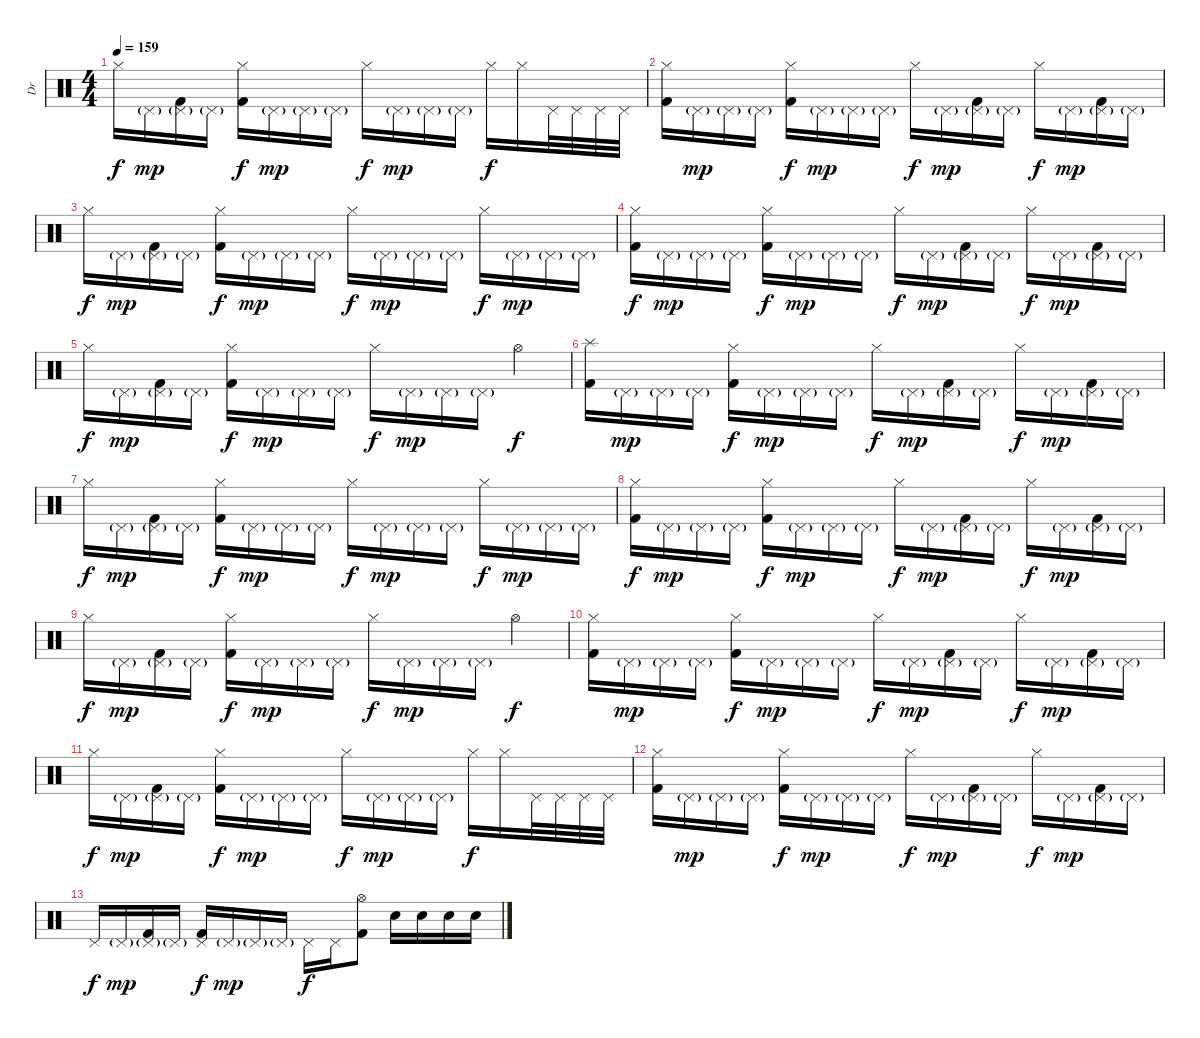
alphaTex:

\track ("Dr" "Dr") {instrument percussion}
\staff {score}
\articulation defaults
\ts (4 4)
\tempo 159
\clef neutral
\ks c "Hi-Hat (closed)".16{dy f} "Pedal Hi-Hat (hit)"{g}.16{dy mp}
("Pedal Hi-Hat (hit)"{g} "Kick (hit) 2").16 "Pedal Hi-Hat (hit)"{g}.16 ("Hi-Hat (closed)" "Kick (hit) 2").16{dy f} "Pedal Hi-Hat (hit)"{g}.16{dy mp} "Pedal Hi-Hat (hit)"{g}.16 "Pedal Hi-Hat (hit)"{g}.16 "Hi-Hat (closed)".16{dy f} "Pedal Hi-Hat (hit)"{g}.16{dy mp} "Pedal Hi-Hat (hit)"{g}.16 "Pedal Hi-Hat (hit)"{g}.16 "Hi-Hat (closed)".16{dy f} "Hi-Hat (closed)".16 "Pedal Hi-Hat (hit)".32 "Pedal Hi-Hat (hit)".32 "Pedal Hi-Hat (hit)".32 "Pedal Hi-Hat (hit)".32 |
("Hi-Hat (closed)" "Kick (hit) 2").16 "Pedal Hi-Hat (hit)"{g}.16{dy mp} "Pedal Hi-Hat (hit)"{g}.16 "Pedal Hi-Hat (hit)"{g}.16 ("Hi-Hat (closed)" "Kick (hit) 2").16{dy f} "Pedal Hi-Hat (hit)"{g}.16{dy mp} "Pedal Hi-Hat (hit)"{g}.16 "Pedal Hi-Hat (hit)"{g}.16 "Hi-Hat (closed)".16{dy f} "Pedal Hi-Hat (hit)"{g}.16{dy mp} ("Pedal Hi-Hat (hit)"{g} "Kick (hit) 2").16 "Pedal Hi-Hat (hit)"{g}.16 "Hi-Hat (closed)".16{dy f} "Pedal Hi-Hat (hit)"{g}.16{dy mp} ("Pedal Hi-Hat (hit)"{g} "Kick (hit) 2").16 "Pedal Hi-Hat (hit)"{g}.16 |
"Hi-Hat (closed)".16{dy f} "Pedal Hi-Hat (hit)"{g}.16{dy mp} ("Pedal Hi-Hat (hit)"{g} "Kick (hit) 2").16 "Pedal Hi-Hat (hit)"{g}.16 ("Hi-Hat (closed)" "Kick (hit) 2").16{dy f} "Pedal Hi-Hat (hit)"{g}.16{dy mp} "Pedal Hi-Hat (hit)"{g}.16 "Pedal Hi-Hat (hit)"{g}.16 "Hi-Hat (closed)".16{dy f} "Pedal Hi-Hat (hit)"{g}.16{dy mp} "Pedal Hi-Hat (hit)"{g}.16 "Pedal Hi-Hat (hit)"{g}.16 "Hi-Hat (closed)".16{dy f} "Pedal Hi-Hat (hit)"{g}.16{dy mp} "Pedal Hi-Hat (hit)"{g}.16 "Pedal Hi-Hat (hit)"{g}.16 |
("Hi-Hat (closed)" "Kick (hit) 2").16{dy f} "Pedal Hi-Hat (hit)"{g}.16{dy mp} "Pedal Hi-Hat (hit)"{g}.16 "Pedal Hi-Hat (hit)"{g}.16 ("Hi-Hat (closed)" "Kick (hit) 2").16{dy f} "Pedal Hi-Hat (hit)"{g}.16{dy mp} "Pedal Hi-Hat (hit)"{g}.16 "Pedal Hi-Hat (hit)"{g}.16 "Hi-Hat (closed)".16{dy f} "Pedal Hi-Hat (hit)"{g}.16{dy mp} ("Pedal Hi-Hat (hit)"{g} "Kick (hit) 2").16 "Pedal Hi-Hat (hit)"{g}.16 "Hi-Hat (closed)".16{dy f} "Pedal Hi-Hat (hit)"{g}.16{dy mp} ("Pedal Hi-Hat (hit)"{g} "Kick (hit) 2").16 "Pedal Hi-Hat (hit)"{g}.16 |
"Hi-Hat (closed)".16{dy f} "Pedal Hi-Hat (hit)"{g}.16{dy mp} ("Pedal Hi-Hat (hit)"{g} "Kick (hit) 2").16 "Pedal Hi-Hat (hit)"{g}.16 ("Hi-Hat (closed)" "Kick (hit) 2").16{dy f} "Pedal Hi-Hat (hit)"{g}.16{dy mp} "Pedal Hi-Hat (hit)"{g}.16 "Pedal Hi-Hat (hit)"{g}.16 "Hi-Hat (closed)".16{dy f} "Pedal Hi-Hat (hit)"{g}.16{dy mp} "Pedal Hi-Hat (hit)"{g}.16 "Pedal Hi-Hat (hit)"{g}.16 "Hi-Hat (open)".4{dy f} |
("Splash (hit)" "Kick (hit) 2").16 "Pedal Hi-Hat (hit)"{g}.16{dy mp} "Pedal Hi-Hat (hit)"{g}.16 "Pedal Hi-Hat (hit)"{g}.16 ("Hi-Hat (closed)" "Kick (hit) 2").16{dy f} "Pedal Hi-Hat (hit)"{g}.16{dy mp} "Pedal Hi-Hat (hit)"{g}.16 "Pedal Hi-Hat (hit)"{g}.16 "Hi-Hat (closed)".16{dy f} "Pedal Hi-Hat (hit)"{g}.16{dy mp} ("Pedal Hi-Hat (hit)"{g} "Kick (hit) 2").16 "Pedal Hi-Hat (hit)"{g}.16 "Hi-Hat (closed)".16{dy f} "Pedal Hi-Hat (hit)"{g}.16{dy mp} ("Pedal Hi-Hat (hit)"{g} "Kick (hit) 2").16 "Pedal Hi-Hat (hit)"{g}.16 |
"Hi-Hat (closed)".16{dy f} "Pedal Hi-Hat (hit)"{g}.16{dy mp} ("Pedal Hi-Hat (hit)"{g} "Kick (hit) 2").16 "Pedal Hi-Hat (hit)"{g}.16 ("Hi-Hat (closed)" "Kick (hit) 2").16{dy f} "Pedal Hi-Hat (hit)"{g}.16{dy mp} "Pedal Hi-Hat (hit)"{g}.16 "Pedal Hi-Hat (hit)"{g}.16 "Hi-Hat (closed)".16{dy f} "Pedal Hi-Hat (hit)"{g}.16{dy mp} "Pedal Hi-Hat (hit)"{g}.16 "Pedal Hi-Hat (hit)"{g}.16 "Hi-Hat (closed)".16{dy f} "Pedal Hi-Hat (hit)"{g}.16{dy mp} "Pedal Hi-Hat (hit)"{g}.16 "Pedal Hi-Hat (hit)"{g}.16 |
("Hi-Hat (closed)" "Kick (hit) 2").16{dy f} "Pedal Hi-Hat (hit)"{g}.16{dy mp} "Pedal Hi-Hat (hit)"{g}.16 "Pedal Hi-Hat (hit)"{g}.16 ("Hi-Hat (closed)" "Kick (hit) 2").16{dy f} "Pedal Hi-Hat (hit)"{g}.16{dy mp} "Pedal Hi-Hat (hit)"{g}.16 "Pedal Hi-Hat (hit)"{g}.16 "Hi-Hat (closed)".16{dy f} "Pedal Hi-Hat (hit)"{g}.16{dy mp} ("Pedal Hi-Hat (hit)"{g} "Kick (hit) 2").16 "Pedal Hi-Hat (hit)"{g}.16 "Hi-Hat (closed)".16{dy f} "Pedal Hi-Hat (hit)"{g}.16{dy mp} ("Pedal Hi-Hat (hit)"{g} "Kick (hit) 2").16 "Pedal Hi-Hat (hit)"{g}.16 |
"Hi-Hat (closed)".16{dy f} "Pedal Hi-Hat (hit)"{g}.16{dy mp} ("Pedal Hi-Hat (hit)"{g} "Kick (hit) 2").16 "Pedal Hi-Hat (hit)"{g}.16 ("Hi-Hat (closed)" "Kick (hit) 2").16{dy f} "Pedal Hi-Hat (hit)"{g}.16{dy mp} "Pedal Hi-Hat (hit)"{g}.16 "Pedal Hi-Hat (hit)"{g}.16 "Hi-Hat (closed)".16{dy f} "Pedal Hi-Hat (hit)"{g}.16{dy mp} "Pedal Hi-Hat (hit)"{g}.16 "Pedal Hi-Hat (hit)"{g}.16 "Hi-Hat (open)".4{dy f} |
("Hi-Hat (closed)" "Kick (hit) 2").16 "Pedal Hi-Hat (hit)"{g}.16{dy mp} "Pedal Hi-Hat (hit)"{g}.16 "Pedal Hi-Hat (hit)"{g}.16 ("Hi-Hat (closed)" "Kick (hit) 2").16{dy f} "Pedal Hi-Hat (hit)"{g}.16{dy mp} "Pedal Hi-Hat (hit)"{g}.16 "Pedal Hi-Hat (hit)"{g}.16 "Hi-Hat (closed)".16{dy f} "Pedal Hi-Hat (hit)"{g}.16{dy mp} ("Pedal Hi-Hat (hit)"{g} "Kick (hit) 2").16 "Pedal Hi-Hat (hit)"{g}.16 "Hi-Hat (closed)".16{dy f} "Pedal Hi-Hat (hit)"{g}.16{dy mp} ("Pedal Hi-Hat (hit)"{g} "Kick (hit) 2").16 "Pedal Hi-Hat (hit)"{g}.16 |
"Hi-Hat (closed)".16{dy f} "Pedal Hi-Hat (hit)"{g}.16{dy mp} ("Pedal Hi-Hat (hit)"{g} "Kick (hit) 2").16 "Pedal Hi-Hat (hit)"{g}.16 ("Hi-Hat (closed)" "Kick (hit) 2").16{dy f} "Pedal Hi-Hat (hit)"{g}.16{dy mp} "Pedal Hi-Hat (hit)"{g}.16 "Pedal Hi-Hat (hit)"{g}.16 "Hi-Hat (closed)".16{dy f} "Pedal Hi-Hat (hit)"{g}.16{dy mp} "Pedal Hi-Hat (hit)"{g}.16 "Pedal Hi-Hat (hit)"{g}.16 "Hi-Hat (closed)".16{dy f} "Hi-Hat (closed)".16 "Pedal Hi-Hat (hit)".32 "Pedal Hi-Hat (hit)".32 "Pedal Hi-Hat (hit)".32 "Pedal Hi-Hat (hit)".32 |
("Hi-Hat (closed)" "Kick (hit) 2").16 "Pedal Hi-Hat (hit)"{g}.16{dy mp} "Pedal Hi-Hat (hit)"{g}.16 "Pedal Hi-Hat (hit)"{g}.16 ("Hi-Hat (closed)" "Kick (hit) 2").16{dy f} "Pedal Hi-Hat (hit)"{g}.16{dy mp} "Pedal Hi-Hat (hit)"{g}.16 "Pedal Hi-Hat (hit)"{g}.16 "Hi-Hat (closed)".16{dy f} "Pedal Hi-Hat (hit)"{g}.16{dy mp} ("Pedal Hi-Hat (hit)"{g} "Kick (hit) 2").16 "Pedal Hi-Hat (hit)"{g}.16 "Hi-Hat (closed)".16{dy f} "Pedal Hi-Hat (hit)"{g}.16{dy mp} ("Pedal Hi-Hat (hit)"{g} "Kick (hit) 2").16 "Pedal Hi-Hat (hit)"{g}.16 |
"Pedal Hi-Hat (hit)".16{dy f} "Pedal Hi-Hat (hit)"{g}.16{dy mp} ("Pedal Hi-Hat (hit)"{g} "Kick (hit) 2").16 "Pedal Hi-Hat (hit)"{g}.16 ("Pedal Hi-Hat (hit)" "Kick (hit) 2").16{dy f} "Pedal Hi-Hat (hit)"{g}.16{dy mp} "Pedal Hi-Hat (hit)"{g}.16 "Pedal Hi-Hat (hit)"{g}.16 "Pedal Hi-Hat (hit)".16{dy f} "Pedal Hi-Hat (hit)".16 ("Hi-Hat (open)" "Kick (hit) 2").8 "Electric Snare (hit)".16 "Electric Snare (hit)".16 "Electric Snare (hit)".16 "Electric Snare (hit)".16
